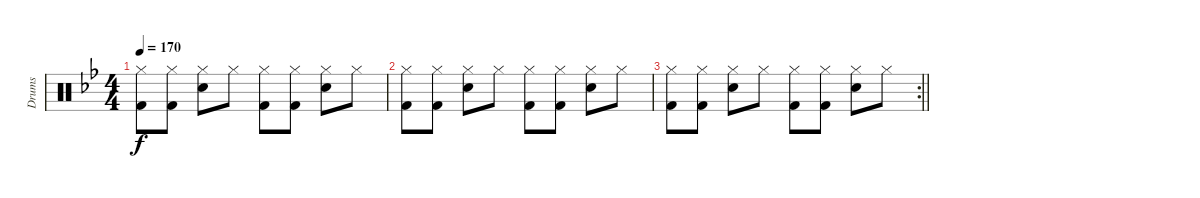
\track ("Drums" "Drums") {instrument percussion}
\staff {score}
\articulation defaults
\ts (4 4)
\tempo 170
\clef neutral
\ks bb
("Hi-Hat (closed)" "Kick (hit) 2").8{dy f} ("Hi-Hat (closed)" "Kick (hit) 2").8 ("Hi-Hat (closed)" "Snare (hit) 2").8 "Hi-Hat (closed)".8 ("Hi-Hat (closed)" "Kick (hit) 2").8 ("Hi-Hat (closed)" "Kick (hit) 2").8 ("Hi-Hat (closed)" "Snare (hit) 2").8 "Hi-Hat (closed)".8 |
("Hi-Hat (closed)" "Kick (hit) 2").8 ("Hi-Hat (closed)" "Kick (hit) 2").8 ("Hi-Hat (closed)" "Snare (hit) 2").8 "Hi-Hat (closed)".8 ("Hi-Hat (closed)" "Kick (hit) 2").8 ("Hi-Hat (closed)" "Kick (hit) 2").8 ("Hi-Hat (closed)" "Snare (hit) 2").8 "Hi-Hat (closed)".8 |
\rc 2
\barLineRight lightlight
("Hi-Hat (closed)" "Kick (hit) 2").8 ("Hi-Hat (closed)" "Kick (hit) 2").8 ("Hi-Hat (closed)" "Snare (hit) 2").8 "Hi-Hat (closed)".8 ("Hi-Hat (closed)" "Kick (hit) 2").8 ("Hi-Hat (closed)" "Kick (hit) 2").8 ("Hi-Hat (closed)" "Snare (hit) 2").8 "Hi-Hat (closed)".8
